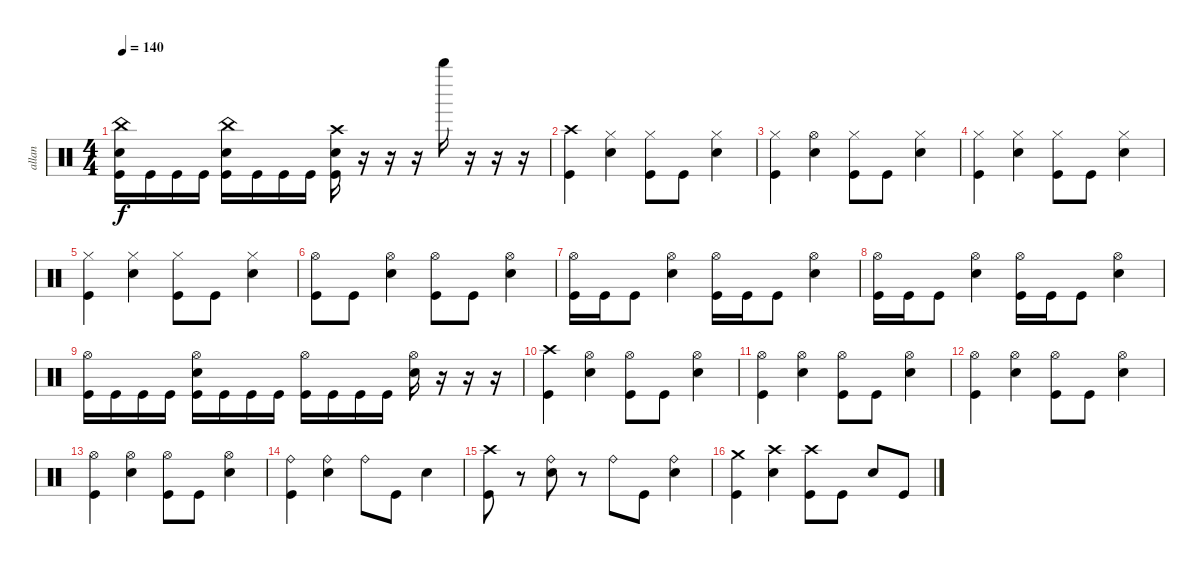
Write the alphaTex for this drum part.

\track ("allan" "allan") {instrument percussion}
\staff {score}
\articulation defaults
\ts (4 4)
\tempo 140
\clef neutral
\ks c
("China (hit)" "Snare (hit) 2" "Kick (hit)").16{dy f} "Kick (hit)".16 "Kick (hit)".16 "Kick (hit)".16 ("China (hit)" "Snare (hit) 2" "Kick (hit)").16 "Kick (hit)".16 "Kick (hit)".16 "Kick (hit)".16 ("Crash high (hit)" "Snare (hit) 2" "Kick (hit)").16 r.16 r.16 r.16 "Whistle high (hit)".16 r.16 r.16 r.16 |
("Crash high (hit)" "Kick (hit)").4 ("Hi-Hat (closed)" "Snare (hit) 2").4 ("Hi-Hat (closed)" "Kick (hit)").8 "Kick (hit)".8 ("Hi-Hat (closed)" "Snare (hit) 2").4 |
("Hi-Hat (closed)" "Kick (hit)").4 ("Hi-Hat (open)" "Snare (hit) 2").4 ("Hi-Hat (closed)" "Kick (hit)").8 "Kick (hit)".8 ("Hi-Hat (closed)" "Snare (hit) 2").4 |
("Hi-Hat (closed)" "Kick (hit)").4 ("Hi-Hat (closed)" "Snare (hit) 2").4 ("Hi-Hat (closed)" "Kick (hit)").8 "Kick (hit)".8 ("Hi-Hat (closed)" "Snare (hit) 2").4 |
("Hi-Hat (closed)" "Kick (hit)").4 ("Hi-Hat (closed)" "Snare (hit) 2").4 ("Hi-Hat (closed)" "Kick (hit)").8 "Kick (hit)".8 ("Hi-Hat (closed)" "Snare (hit) 2").4 |
("Hi-Hat (open)" "Kick (hit)").8 "Kick (hit)".8 ("Hi-Hat (open)" "Snare (hit) 2").4 ("Hi-Hat (open)" "Kick (hit)").8 "Kick (hit)".8 ("Hi-Hat (open)" "Snare (hit) 2").4 |
("Hi-Hat (open)" "Kick (hit)").16 "Kick (hit)".16 "Kick (hit)".8 ("Hi-Hat (open)" "Snare (hit) 2").4 ("Hi-Hat (open)" "Kick (hit)").16 "Kick (hit)".16 "Kick (hit)".8 ("Hi-Hat (open)" "Snare (hit) 2").4 |
("Hi-Hat (open)" "Kick (hit)").16 "Kick (hit)".16 "Kick (hit)".8 ("Hi-Hat (open)" "Snare (hit) 2").4 ("Hi-Hat (open)" "Kick (hit)").16 "Kick (hit)".16 "Kick (hit)".8 ("Hi-Hat (open)" "Snare (hit) 2").4 |
("Hi-Hat (open)" "Kick (hit)").16 "Kick (hit)".16 "Kick (hit)".16 "Kick (hit)".16 ("Hi-Hat (open)" "Snare (hit) 2" "Kick (hit)").16 "Kick (hit)".16 "Kick (hit)".16 "Kick (hit)".16 ("Hi-Hat (open)" "Kick (hit)").16 "Kick (hit)".16 "Kick (hit)".16 "Kick (hit)".16 ("Hi-Hat (open)" "Snare (hit) 2").16 r.16 r.16 r.16 |
("Crash high (hit)" "Kick (hit)").4 ("Hi-Hat (open)" "Snare (hit) 2").4 ("Hi-Hat (open)" "Kick (hit)").8 "Kick (hit)".8 ("Hi-Hat (open)" "Snare (hit) 2").4 |
("Hi-Hat (open)" "Kick (hit)").4 ("Hi-Hat (open)" "Snare (hit) 2").4 ("Hi-Hat (open)" "Kick (hit)").8 "Kick (hit)".8 ("Hi-Hat (open)" "Snare (hit) 2").4 |
("Hi-Hat (open)" "Kick (hit)").4 ("Snare (hit) 2" "Hi-Hat (open)").4 ("Hi-Hat (open)" "Kick (hit)").8 "Kick (hit)".8 ("Hi-Hat (open)" "Snare (hit) 2").4 |
("Hi-Hat (open)" "Kick (hit)").4 ("Hi-Hat (open)" "Snare (hit) 2").4 ("Hi-Hat (open)" "Kick (hit)").8 "Kick (hit)".8 ("Hi-Hat (open)" "Snare (hit) 2").4 |
("Ride (bell)" "Kick (hit)").4 ("Snare (hit) 2" "Ride (bell)").4 "Ride (bell)".8 "Kick (hit)".8 "Snare (hit) 2".4 |
("Crash high (hit)" "Kick (hit)").8 r.8 ("Ride (bell)" "Snare (hit) 2").8 r.8 "Ride (bell)".8 "Kick (hit)".8 ("Ride (bell)" "Snare (hit) 2").4 |
("Crash medium (hit)" "Kick (hit)").4 ("Crash high (hit)" "Snare (hit) 2").4 ("Crash high (hit)" "Kick (hit)").8 "Kick (hit)".8 "Snare (hit) 2".8 "Kick (hit)".8
